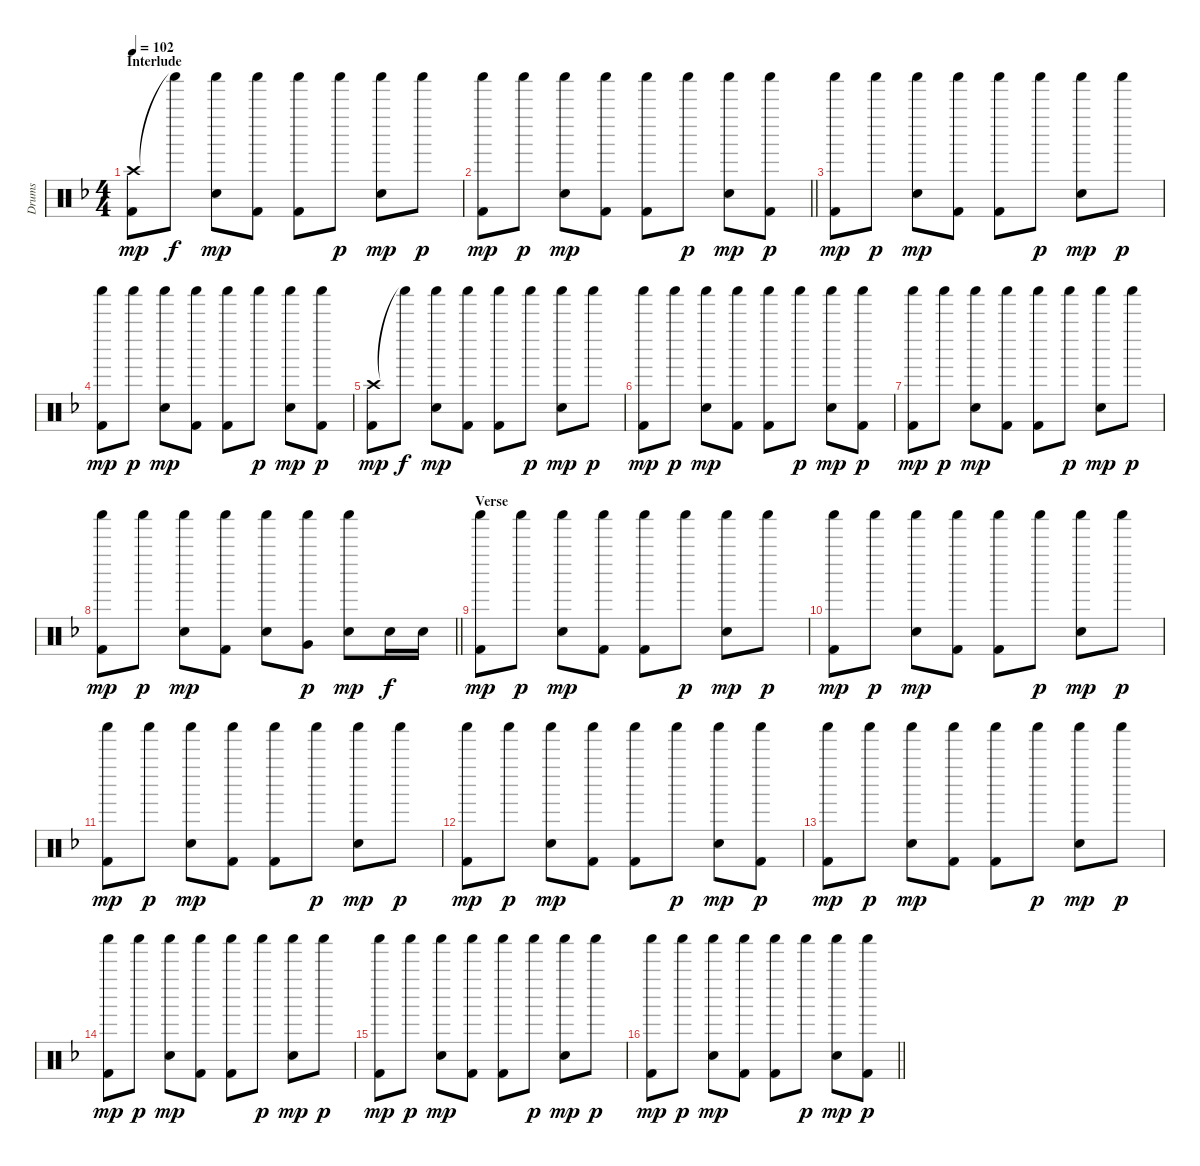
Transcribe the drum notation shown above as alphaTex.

\track ("Drums" "Drums") {instrument percussion}
\staff {score}
\articulation defaults
\ts (4 4)
\section ("" "Interlude")
\tempo 102
\clef neutral
\ks dminor
("Crash high (hit)" "Kick (hit) 2").8{dy mp} "Shaker (hit)"{t}.8{dy f} ("Shaker (hit)" "Snare (hit) 2").8{dy mp} ("Shaker (hit)" "Kick (hit) 2").8 ("Shaker (hit)" "Kick (hit) 2").8 "Shaker (hit)".8{dy p} ("Shaker (hit)" "Snare (hit) 2").8{dy mp} "Shaker (hit)".8{dy p} |
\barLineRight lightlight
("Shaker (hit)" "Kick (hit) 2").8{dy mp} "Shaker (hit)".8{dy p} ("Shaker (hit)" "Snare (hit) 2").8{dy mp} ("Shaker (hit)" "Kick (hit) 2").8 ("Shaker (hit)" "Kick (hit) 2").8 "Shaker (hit)".8{dy p} ("Shaker (hit)" "Snare (hit) 2").8{dy mp} ("Shaker (hit)" "Kick (hit) 2").8{dy p} |
("Shaker (hit)" "Kick (hit) 2").8{dy mp} "Shaker (hit)".8{dy p} ("Shaker (hit)" "Snare (hit) 2").8{dy mp} ("Shaker (hit)" "Kick (hit) 2").8 ("Shaker (hit)" "Kick (hit) 2").8 "Shaker (hit)".8{dy p} ("Shaker (hit)" "Snare (hit) 2").8{dy mp} "Shaker (hit)".8{dy p} |
("Shaker (hit)" "Kick (hit) 2").8{dy mp} "Shaker (hit)".8{dy p} ("Shaker (hit)" "Snare (hit) 2").8{dy mp} ("Shaker (hit)" "Kick (hit) 2").8 ("Shaker (hit)" "Kick (hit) 2").8 "Shaker (hit)".8{dy p} ("Shaker (hit)" "Snare (hit) 2").8{dy mp} ("Shaker (hit)" "Kick (hit) 2").8{dy p} |
("Crash high (hit)" "Kick (hit) 2").8{dy mp} "Shaker (hit)"{t}.8{dy f} ("Shaker (hit)" "Snare (hit) 2").8{dy mp} ("Shaker (hit)" "Kick (hit) 2").8 ("Shaker (hit)" "Kick (hit) 2").8 "Shaker (hit)".8{dy p} ("Shaker (hit)" "Snare (hit) 2").8{dy mp} "Shaker (hit)".8{dy p} |
("Shaker (hit)" "Kick (hit) 2").8{dy mp} "Shaker (hit)".8{dy p} ("Shaker (hit)" "Snare (hit) 2").8{dy mp} ("Shaker (hit)" "Kick (hit) 2").8 ("Shaker (hit)" "Kick (hit) 2").8 "Shaker (hit)".8{dy p} ("Shaker (hit)" "Snare (hit) 2").8{dy mp} ("Shaker (hit)" "Kick (hit) 2").8{dy p} |
("Shaker (hit)" "Kick (hit) 2").8{dy mp} "Shaker (hit)".8{dy p} ("Shaker (hit)" "Snare (hit) 2").8{dy mp} ("Shaker (hit)" "Kick (hit) 2").8 ("Shaker (hit)" "Kick (hit) 2").8 "Shaker (hit)".8{dy p} ("Shaker (hit)" "Snare (hit) 2").8{dy mp} "Shaker (hit)".8{dy p} |
\barLineRight lightlight
("Shaker (hit)" "Kick (hit) 2").8{dy mp} "Shaker (hit)".8{dy p} ("Shaker (hit)" "Snare (hit) 2").8{dy mp} ("Shaker (hit)" "Kick (hit) 2").8 ("Shaker (hit)" "Snare (hit) 2").8 ("Shaker (hit)" "Very Low Tom (hit)").8{dy p} ("Shaker (hit)" "Snare (hit) 2").8{dy mp} "Snare (hit) 2".16{dy f} "Snare (hit) 2".16 |
\section ("" "Verse")
("Shaker (hit)" "Kick (hit) 2").8{dy mp} "Shaker (hit)".8{dy p} ("Shaker (hit)" "Snare (hit) 2").8{dy mp} ("Shaker (hit)" "Kick (hit) 2").8 ("Shaker (hit)" "Kick (hit) 2").8 "Shaker (hit)".8{dy p} ("Shaker (hit)" "Snare (hit) 2").8{dy mp} "Shaker (hit)".8{dy p} |
("Shaker (hit)" "Kick (hit) 2").8{dy mp} "Shaker (hit)".8{dy p} ("Shaker (hit)" "Snare (hit) 2").8{dy mp} ("Shaker (hit)" "Kick (hit) 2").8 ("Shaker (hit)" "Kick (hit) 2").8 "Shaker (hit)".8{dy p} ("Shaker (hit)" "Snare (hit) 2").8{dy mp} "Shaker (hit)".8{dy p} |
("Shaker (hit)" "Kick (hit) 2").8{dy mp} "Shaker (hit)".8{dy p} ("Shaker (hit)" "Snare (hit) 2").8{dy mp} ("Shaker (hit)" "Kick (hit) 2").8 ("Shaker (hit)" "Kick (hit) 2").8 "Shaker (hit)".8{dy p} ("Shaker (hit)" "Snare (hit) 2").8{dy mp} "Shaker (hit)".8{dy p} |
("Shaker (hit)" "Kick (hit) 2").8{dy mp} "Shaker (hit)".8{dy p} ("Shaker (hit)" "Snare (hit) 2").8{dy mp} ("Shaker (hit)" "Kick (hit) 2").8 ("Shaker (hit)" "Kick (hit) 2").8 "Shaker (hit)".8{dy p} ("Shaker (hit)" "Snare (hit) 2").8{dy mp} ("Shaker (hit)" "Kick (hit) 2").8{dy p} |
("Shaker (hit)" "Kick (hit) 2").8{dy mp} "Shaker (hit)".8{dy p} ("Shaker (hit)" "Snare (hit) 2").8{dy mp} ("Shaker (hit)" "Kick (hit) 2").8 ("Shaker (hit)" "Kick (hit) 2").8 "Shaker (hit)".8{dy p} ("Shaker (hit)" "Snare (hit) 2").8{dy mp} "Shaker (hit)".8{dy p} |
("Shaker (hit)" "Kick (hit) 2").8{dy mp} "Shaker (hit)".8{dy p} ("Shaker (hit)" "Snare (hit) 2").8{dy mp} ("Shaker (hit)" "Kick (hit) 2").8 ("Shaker (hit)" "Kick (hit) 2").8 "Shaker (hit)".8{dy p} ("Shaker (hit)" "Snare (hit) 2").8{dy mp} "Shaker (hit)".8{dy p} |
("Shaker (hit)" "Kick (hit) 2").8{dy mp} "Shaker (hit)".8{dy p} ("Shaker (hit)" "Snare (hit) 2").8{dy mp} ("Shaker (hit)" "Kick (hit) 2").8 ("Shaker (hit)" "Kick (hit) 2").8 "Shaker (hit)".8{dy p} ("Shaker (hit)" "Snare (hit) 2").8{dy mp} "Shaker (hit)".8{dy p} |
\barLineRight lightlight
("Shaker (hit)" "Kick (hit) 2").8{dy mp} "Shaker (hit)".8{dy p} ("Shaker (hit)" "Snare (hit) 2").8{dy mp} ("Shaker (hit)" "Kick (hit) 2").8 ("Shaker (hit)" "Kick (hit) 2").8 "Shaker (hit)".8{dy p} ("Shaker (hit)" "Snare (hit) 2").8{dy mp} ("Shaker (hit)" "Kick (hit) 2").8{dy p}
